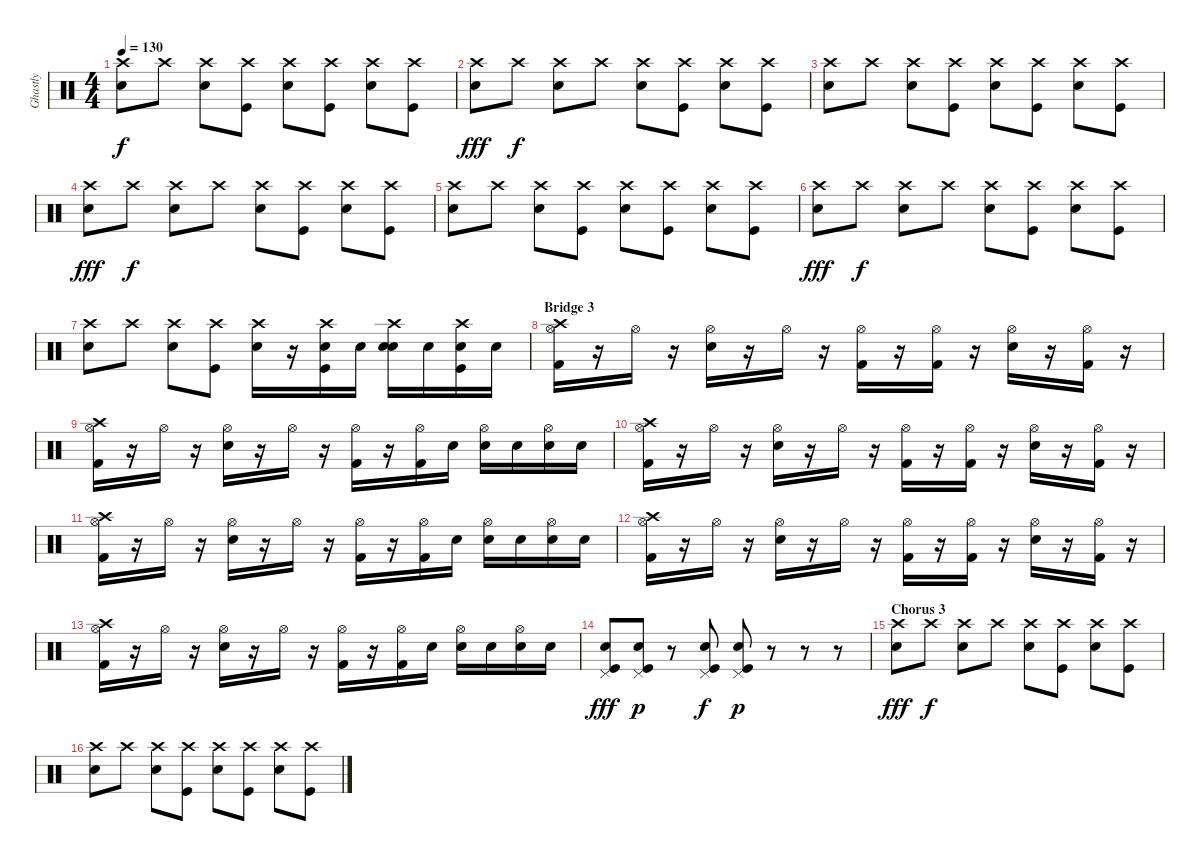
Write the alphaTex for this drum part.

\track ("Ghastly" "Ghastly") {instrument percussion}
\staff {score}
\articulation defaults
\ts (4 4)
\tempo 130
\clef neutral
\ks c
("Crash high (hit)" "Electric Snare (hit)").8{dy f} "Crash high (hit)".8 ("Crash high (hit)" "Electric Snare (hit)").8 ("Crash high (hit)" "Kick (hit)").8 ("Crash high (hit)" "Electric Snare (hit)").8 ("Crash high (hit)" "Kick (hit)").8 ("Crash high (hit)" "Electric Snare (hit)").8 ("Crash high (hit)" "Kick (hit)").8 |
("Crash high (hit)" "Electric Snare (hit)").8{dy fff} "Crash high (hit)".8{dy f} ("Crash high (hit)" "Electric Snare (hit)").8 "Crash high (hit)".8 ("Crash high (hit)" "Electric Snare (hit)").8 ("Crash high (hit)" "Kick (hit)").8 ("Crash high (hit)" "Electric Snare (hit)").8 ("Crash high (hit)" "Kick (hit)").8 |
("Crash high (hit)" "Electric Snare (hit)").8 "Crash high (hit)".8 ("Crash high (hit)" "Electric Snare (hit)").8 ("Crash high (hit)" "Kick (hit)").8 ("Crash high (hit)" "Electric Snare (hit)").8 ("Crash high (hit)" "Kick (hit)").8 ("Crash high (hit)" "Electric Snare (hit)").8 ("Crash high (hit)" "Kick (hit)").8 |
("Crash high (hit)" "Electric Snare (hit)").8{dy fff} "Crash high (hit)".8{dy f} ("Crash high (hit)" "Electric Snare (hit)").8 "Crash high (hit)".8 ("Crash high (hit)" "Electric Snare (hit)").8 ("Crash high (hit)" "Kick (hit)").8 ("Crash high (hit)" "Electric Snare (hit)").8 ("Crash high (hit)" "Kick (hit)").8 |
("Crash high (hit)" "Electric Snare (hit)").8 "Crash high (hit)".8 ("Crash high (hit)" "Electric Snare (hit)").8 ("Crash high (hit)" "Kick (hit)").8 ("Crash high (hit)" "Electric Snare (hit)").8 ("Crash high (hit)" "Kick (hit)").8 ("Crash high (hit)" "Electric Snare (hit)").8 ("Crash high (hit)" "Kick (hit)").8 |
("Crash high (hit)" "Electric Snare (hit)").8{dy fff} "Crash high (hit)".8{dy f} ("Crash high (hit)" "Electric Snare (hit)").8 "Crash high (hit)".8 ("Crash high (hit)" "Electric Snare (hit)").8 ("Crash high (hit)" "Kick (hit)").8 ("Crash high (hit)" "Electric Snare (hit)").8 ("Crash high (hit)" "Kick (hit)").8 |
("Crash high (hit)" "Electric Snare (hit)").8 "Crash high (hit)".8 ("Crash high (hit)" "Electric Snare (hit)").8 ("Crash high (hit)" "Kick (hit)").8 ("Crash high (hit)" "Electric Snare (hit)").16 r.16 ("Crash high (hit)" "Kick (hit)" "Electric Snare (hit)").16 "Electric Snare (hit)".16 ("Crash high (hit)" "Electric Snare (hit)" "Electric Snare (hit)").16 "Electric Snare (hit)".16 ("Crash high (hit)" "Kick (hit)" "Electric Snare (hit)").16 "Electric Snare (hit)".16 |
\section ("" "Bridge 3")
("Hi-Hat (open)" "Crash high (hit)" "Kick (hit) 2").16 r.16 "Hi-Hat (open)".16 r.16 ("Hi-Hat (open)" "Electric Snare (hit)").16 r.16 "Hi-Hat (open)".16 r.16 ("Hi-Hat (open)" "Kick (hit) 2").16 r.16 ("Hi-Hat (open)" "Kick (hit) 2").16 r.16 ("Hi-Hat (open)" "Electric Snare (hit)").16 r.16 ("Hi-Hat (open)" "Kick (hit) 2").16 r.16 |
("Hi-Hat (open)" "Crash high (hit)" "Kick (hit) 2").16 r.16 "Hi-Hat (open)".16 r.16 ("Hi-Hat (open)" "Electric Snare (hit)").16 r.16 "Hi-Hat (open)".16 r.16 ("Hi-Hat (open)" "Kick (hit) 2").16 r.16 ("Hi-Hat (open)" "Kick (hit) 2").16 "Electric Snare (hit)".16 ("Hi-Hat (open)" "Electric Snare (hit)").16 "Electric Snare (hit)".16 ("Hi-Hat (open)" "Electric Snare (hit)").16 "Electric Snare (hit)".16 |
("Hi-Hat (open)" "Crash high (hit)" "Kick (hit) 2").16 r.16 "Hi-Hat (open)".16 r.16 ("Hi-Hat (open)" "Electric Snare (hit)").16 r.16 "Hi-Hat (open)".16 r.16 ("Hi-Hat (open)" "Kick (hit) 2").16 r.16 ("Hi-Hat (open)" "Kick (hit) 2").16 r.16 ("Hi-Hat (open)" "Electric Snare (hit)").16 r.16 ("Hi-Hat (open)" "Kick (hit) 2").16 r.16 |
("Hi-Hat (open)" "Crash high (hit)" "Kick (hit) 2").16 r.16 "Hi-Hat (open)".16 r.16 ("Hi-Hat (open)" "Electric Snare (hit)").16 r.16 "Hi-Hat (open)".16 r.16 ("Hi-Hat (open)" "Kick (hit) 2").16 r.16 ("Hi-Hat (open)" "Kick (hit) 2").16 "Electric Snare (hit)".16 ("Hi-Hat (open)" "Electric Snare (hit)").16 "Electric Snare (hit)".16 ("Hi-Hat (open)" "Electric Snare (hit)").16 "Electric Snare (hit)".16 |
("Hi-Hat (open)" "Crash high (hit)" "Kick (hit) 2").16 r.16 "Hi-Hat (open)".16 r.16 ("Hi-Hat (open)" "Electric Snare (hit)").16 r.16 "Hi-Hat (open)".16 r.16 ("Hi-Hat (open)" "Kick (hit) 2").16 r.16 ("Hi-Hat (open)" "Kick (hit) 2").16 r.16 ("Hi-Hat (open)" "Electric Snare (hit)").16 r.16 ("Hi-Hat (open)" "Kick (hit) 2").16 r.16 |
("Hi-Hat (open)" "Crash high (hit)" "Kick (hit) 2").16 r.16 "Hi-Hat (open)".16 r.16 ("Hi-Hat (open)" "Electric Snare (hit)").16 r.16 "Hi-Hat (open)".16 r.16 ("Hi-Hat (open)" "Kick (hit) 2").16 r.16 ("Hi-Hat (open)" "Kick (hit) 2").16 "Electric Snare (hit)".16 ("Hi-Hat (open)" "Electric Snare (hit)").16 "Electric Snare (hit)".16 ("Hi-Hat (open)" "Electric Snare (hit)").16 "Electric Snare (hit)".16 |
("Pedal Hi-Hat (hit)" "Kick (hit)" "Electric Snare (hit)").8{dy fff} ("Pedal Hi-Hat (hit)" "Kick (hit)" "Electric Snare (hit)").8{dy p} r.8 ("Pedal Hi-Hat (hit)" "Kick (hit)" "Electric Snare (hit)").8{dy f} ("Pedal Hi-Hat (hit)" "Kick (hit)" "Electric Snare (hit)").8{dy p} r.8 r.8 r.8 |
\section ("" "Chorus 3")
("Crash high (hit)" "Electric Snare (hit)").8{dy fff} "Crash high (hit)".8{dy f} ("Crash high (hit)" "Electric Snare (hit)").8 "Crash high (hit)".8 ("Crash high (hit)" "Electric Snare (hit)").8 ("Crash high (hit)" "Kick (hit)").8 ("Crash high (hit)" "Electric Snare (hit)").8 ("Crash high (hit)" "Kick (hit)").8 |
("Crash high (hit)" "Electric Snare (hit)").8 "Crash high (hit)".8 ("Crash high (hit)" "Electric Snare (hit)").8 ("Crash high (hit)" "Kick (hit)").8 ("Crash high (hit)" "Electric Snare (hit)").8 ("Crash high (hit)" "Kick (hit)").8 ("Crash high (hit)" "Electric Snare (hit)").8 ("Crash high (hit)" "Kick (hit)").8
